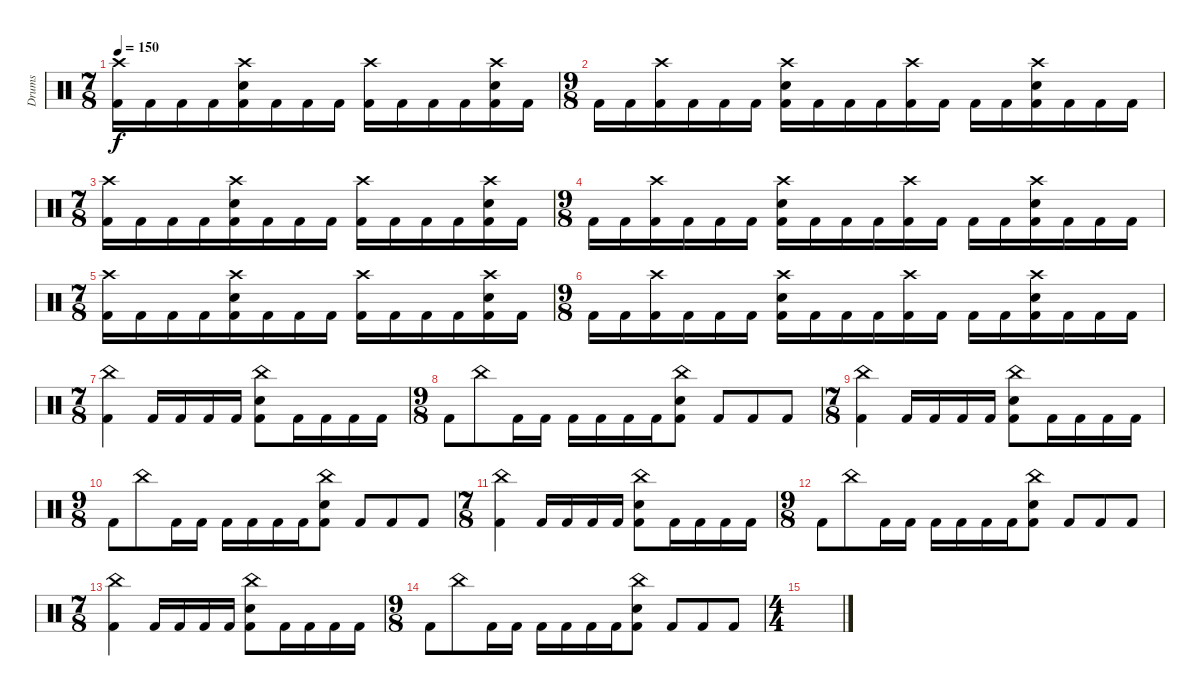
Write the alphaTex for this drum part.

\track ("Drums" "Drums") {instrument percussion}
\staff {score}
\articulation defaults
\ts (7 8)
\tempo 150
\clef neutral
\ks c
("Crash high (hit)" "Kick (hit) 2").16{dy f} "Kick (hit) 2".16 "Kick (hit) 2".16 "Kick (hit) 2".16 ("Crash high (hit)" "Electric Snare (hit)" "Kick (hit) 2").16 "Kick (hit) 2".16 "Kick (hit) 2".16 "Kick (hit) 2".16 ("Crash high (hit)" "Kick (hit) 2").16 "Kick (hit) 2".16 "Kick (hit) 2".16 "Kick (hit) 2".16 ("Crash high (hit)" "Electric Snare (hit)" "Kick (hit) 2").16 "Kick (hit) 2".16 |
\ts (9 8)
"Kick (hit) 2".16 "Kick (hit) 2".16 ("Crash high (hit)" "Kick (hit) 2").16 "Kick (hit) 2".16 "Kick (hit) 2".16 "Kick (hit) 2".16 ("Crash high (hit)" "Electric Snare (hit)" "Kick (hit) 2").16 "Kick (hit) 2".16 "Kick (hit) 2".16 "Kick (hit) 2".16 ("Crash high (hit)" "Kick (hit) 2").16 "Kick (hit) 2".16 "Kick (hit) 2".16 "Kick (hit) 2".16 ("Crash high (hit)" "Electric Snare (hit)" "Kick (hit) 2").16 "Kick (hit) 2".16 "Kick (hit) 2".16 "Kick (hit) 2".16 |
\ts (7 8)
("Crash high (hit)" "Kick (hit) 2").16 "Kick (hit) 2".16 "Kick (hit) 2".16 "Kick (hit) 2".16 ("Crash high (hit)" "Electric Snare (hit)" "Kick (hit) 2").16 "Kick (hit) 2".16 "Kick (hit) 2".16 "Kick (hit) 2".16 ("Crash high (hit)" "Kick (hit) 2").16 "Kick (hit) 2".16 "Kick (hit) 2".16 "Kick (hit) 2".16 ("Crash high (hit)" "Electric Snare (hit)" "Kick (hit) 2").16 "Kick (hit) 2".16 |
\ts (9 8)
"Kick (hit) 2".16 "Kick (hit) 2".16 ("Crash high (hit)" "Kick (hit) 2").16 "Kick (hit) 2".16 "Kick (hit) 2".16 "Kick (hit) 2".16 ("Crash high (hit)" "Electric Snare (hit)" "Kick (hit) 2").16 "Kick (hit) 2".16 "Kick (hit) 2".16 "Kick (hit) 2".16 ("Crash high (hit)" "Kick (hit) 2").16 "Kick (hit) 2".16 "Kick (hit) 2".16 "Kick (hit) 2".16 ("Crash high (hit)" "Electric Snare (hit)" "Kick (hit) 2").16 "Kick (hit) 2".16 "Kick (hit) 2".16 "Kick (hit) 2".16 |
\ts (7 8)
("Crash high (hit)" "Kick (hit) 2").16 "Kick (hit) 2".16 "Kick (hit) 2".16 "Kick (hit) 2".16 ("Crash high (hit)" "Electric Snare (hit)" "Kick (hit) 2").16 "Kick (hit) 2".16 "Kick (hit) 2".16 "Kick (hit) 2".16 ("Crash high (hit)" "Kick (hit) 2").16 "Kick (hit) 2".16 "Kick (hit) 2".16 "Kick (hit) 2".16 ("Crash high (hit)" "Electric Snare (hit)" "Kick (hit) 2").16 "Kick (hit) 2".16 |
\ts (9 8)
"Kick (hit) 2".16 "Kick (hit) 2".16 ("Crash high (hit)" "Kick (hit) 2").16 "Kick (hit) 2".16 "Kick (hit) 2".16 "Kick (hit) 2".16 ("Crash high (hit)" "Electric Snare (hit)" "Kick (hit) 2").16 "Kick (hit) 2".16 "Kick (hit) 2".16 "Kick (hit) 2".16 ("Crash high (hit)" "Kick (hit) 2").16 "Kick (hit) 2".16 "Kick (hit) 2".16 "Kick (hit) 2".16 ("Crash high (hit)" "Electric Snare (hit)" "Kick (hit) 2").16 "Kick (hit) 2".16 "Kick (hit) 2".16 "Kick (hit) 2".16 |
\ts (7 8)
("China (hit)" "Kick (hit) 2").4 "Kick (hit) 2".16 "Kick (hit) 2".16 "Kick (hit) 2".16 "Kick (hit) 2".16 ("China (hit)" "Electric Snare (hit)" "Kick (hit) 2").8 "Kick (hit) 2".16 "Kick (hit) 2".16 "Kick (hit) 2".16 "Kick (hit) 2".16 |
\ts (9 8)
"Kick (hit) 2".8 "China (hit)".8 "Kick (hit) 2".16 "Kick (hit) 2".16 "Kick (hit) 2".16 "Kick (hit) 2".16 "Kick (hit) 2".16 "Kick (hit) 2".16 ("China (hit)" "Electric Snare (hit)" "Kick (hit) 2").8 "Kick (hit) 2".8 "Kick (hit) 2".8 "Kick (hit) 2".8 |
\ts (7 8)
("China (hit)" "Kick (hit) 2").4 "Kick (hit) 2".16 "Kick (hit) 2".16 "Kick (hit) 2".16 "Kick (hit) 2".16 ("China (hit)" "Electric Snare (hit)" "Kick (hit) 2").8 "Kick (hit) 2".16 "Kick (hit) 2".16 "Kick (hit) 2".16 "Kick (hit) 2".16 |
\ts (9 8)
"Kick (hit) 2".8 "China (hit)".8 "Kick (hit) 2".16 "Kick (hit) 2".16 "Kick (hit) 2".16 "Kick (hit) 2".16 "Kick (hit) 2".16 "Kick (hit) 2".16 ("China (hit)" "Electric Snare (hit)" "Kick (hit) 2").8 "Kick (hit) 2".8 "Kick (hit) 2".8 "Kick (hit) 2".8 |
\ts (7 8)
("China (hit)" "Kick (hit) 2").4 "Kick (hit) 2".16 "Kick (hit) 2".16 "Kick (hit) 2".16 "Kick (hit) 2".16 ("China (hit)" "Electric Snare (hit)" "Kick (hit) 2").8 "Kick (hit) 2".16 "Kick (hit) 2".16 "Kick (hit) 2".16 "Kick (hit) 2".16 |
\ts (9 8)
"Kick (hit) 2".8 "China (hit)".8 "Kick (hit) 2".16 "Kick (hit) 2".16 "Kick (hit) 2".16 "Kick (hit) 2".16 "Kick (hit) 2".16 "Kick (hit) 2".16 ("China (hit)" "Electric Snare (hit)" "Kick (hit) 2").8 "Kick (hit) 2".8 "Kick (hit) 2".8 "Kick (hit) 2".8 |
\ts (7 8)
("China (hit)" "Kick (hit) 2").4 "Kick (hit) 2".16 "Kick (hit) 2".16 "Kick (hit) 2".16 "Kick (hit) 2".16 ("China (hit)" "Electric Snare (hit)" "Kick (hit) 2").8 "Kick (hit) 2".16 "Kick (hit) 2".16 "Kick (hit) 2".16 "Kick (hit) 2".16 |
\ts (9 8)
"Kick (hit) 2".8 "China (hit)".8 "Kick (hit) 2".16 "Kick (hit) 2".16 "Kick (hit) 2".16 "Kick (hit) 2".16 "Kick (hit) 2".16 "Kick (hit) 2".16 ("China (hit)" "Electric Snare (hit)" "Kick (hit) 2").8 "Kick (hit) 2".8 "Kick (hit) 2".8 "Kick (hit) 2".8 |
\ts (4 4)
